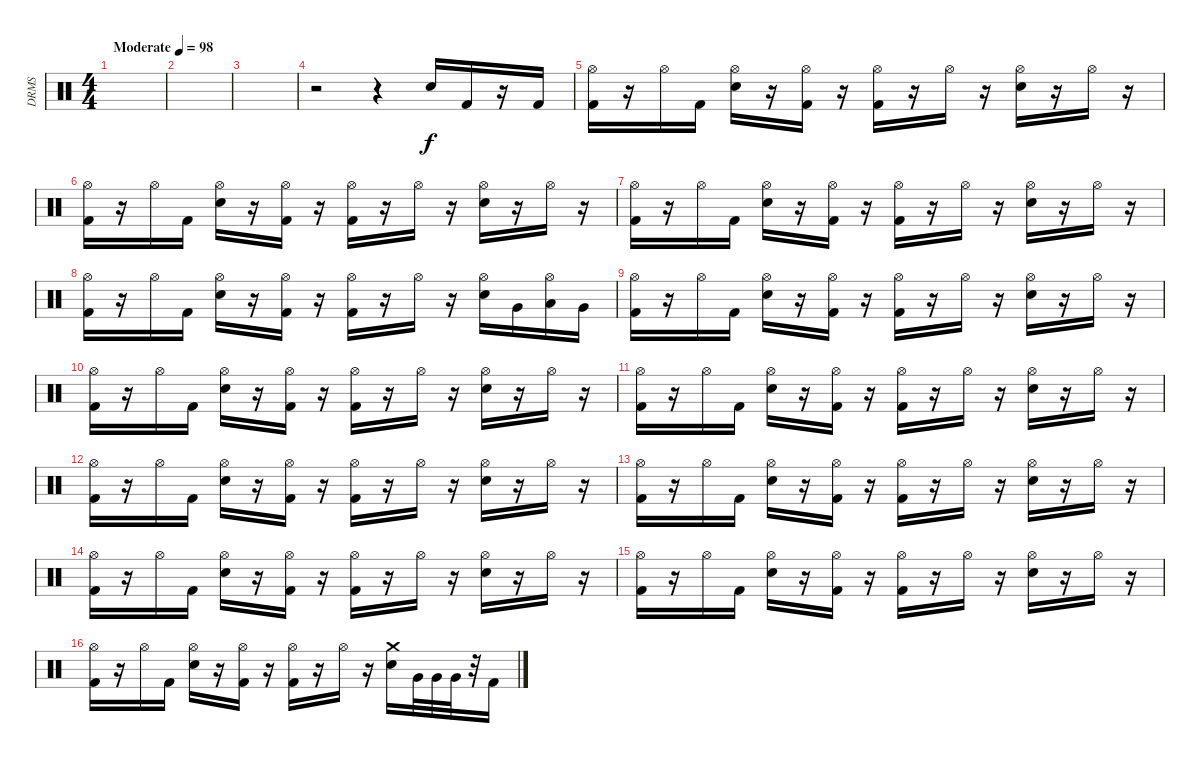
\track ("DRMS" "DRMS") {instrument percussion}
\staff {score}
\articulation defaults
\ts (4 4)
\tempo (98 "Moderate")
\clef neutral
\ks c
|
|
|
r.2 r.4 "Snare (hit) 2".16 "Kick (hit) 2".16 r.16 "Kick (hit) 2".16 |
("Hi-Hat (open)" "Kick (hit) 2").16 r.16 "Hi-Hat (open)".16 "Kick (hit) 2".16 ("Hi-Hat (open)" "Snare (hit) 2").16 r.16 ("Hi-Hat (open)" "Kick (hit) 2").16 r.16 ("Hi-Hat (open)" "Kick (hit) 2").16 r.16 "Hi-Hat (open)".16 r.16 ("Hi-Hat (open)" "Snare (hit) 2").16 r.16 "Hi-Hat (open)".16 r.16 |
("Hi-Hat (open)" "Kick (hit) 2").16 r.16 "Hi-Hat (open)".16 "Kick (hit) 2".16 ("Hi-Hat (open)" "Snare (hit) 2").16 r.16 ("Hi-Hat (open)" "Kick (hit) 2").16 r.16 ("Hi-Hat (open)" "Kick (hit) 2").16 r.16 "Hi-Hat (open)".16 r.16 ("Hi-Hat (open)" "Snare (hit) 2").16 r.16 "Hi-Hat (open)".16 r.16 |
("Hi-Hat (open)" "Kick (hit) 2").16 r.16 "Hi-Hat (open)".16 "Kick (hit) 2".16 ("Hi-Hat (open)" "Snare (hit) 2").16 r.16 ("Hi-Hat (open)" "Kick (hit) 2").16 r.16 ("Hi-Hat (open)" "Kick (hit) 2").16 r.16 "Hi-Hat (open)".16 r.16 ("Hi-Hat (open)" "Snare (hit) 2").16 r.16 "Hi-Hat (open)".16 r.16 |
("Hi-Hat (open)" "Kick (hit) 2").16 r.16 "Hi-Hat (open)".16 "Kick (hit) 2".16 ("Hi-Hat (open)" "Snare (hit) 2").16 r.16 ("Hi-Hat (open)" "Kick (hit) 2").16 r.16 ("Hi-Hat (open)" "Kick (hit) 2").16 r.16 "Hi-Hat (open)".16 r.16 ("Hi-Hat (open)" "Snare (hit) 2").16 "Very Low Tom (hit)".16 ("Hi-Hat (open)" "Low Tom (hit)").16 "Very Low Tom (hit)".16 |
("Hi-Hat (open)" "Kick (hit) 2").16 r.16 "Hi-Hat (open)".16 "Kick (hit) 2".16 ("Hi-Hat (open)" "Snare (hit) 2").16 r.16 ("Hi-Hat (open)" "Kick (hit) 2").16 r.16 ("Hi-Hat (open)" "Kick (hit) 2").16 r.16 "Hi-Hat (open)".16 r.16 ("Hi-Hat (open)" "Snare (hit) 2").16 r.16 "Hi-Hat (open)".16 r.16 |
("Hi-Hat (open)" "Kick (hit) 2").16 r.16 "Hi-Hat (open)".16 "Kick (hit) 2".16 ("Hi-Hat (open)" "Snare (hit) 2").16 r.16 ("Hi-Hat (open)" "Kick (hit) 2").16 r.16 ("Hi-Hat (open)" "Kick (hit) 2").16 r.16 "Hi-Hat (open)".16 r.16 ("Hi-Hat (open)" "Snare (hit) 2").16 r.16 "Hi-Hat (open)".16 r.16 |
("Hi-Hat (open)" "Kick (hit) 2").16 r.16 "Hi-Hat (open)".16 "Kick (hit) 2".16 ("Hi-Hat (open)" "Snare (hit) 2").16 r.16 ("Hi-Hat (open)" "Kick (hit) 2").16 r.16 ("Hi-Hat (open)" "Kick (hit) 2").16 r.16 "Hi-Hat (open)".16 r.16 ("Hi-Hat (open)" "Snare (hit) 2").16 r.16 "Hi-Hat (open)".16 r.16 |
("Hi-Hat (open)" "Kick (hit) 2").16 r.16 "Hi-Hat (open)".16 "Kick (hit) 2".16 ("Hi-Hat (open)" "Snare (hit) 2").16 r.16 ("Hi-Hat (open)" "Kick (hit) 2").16 r.16 ("Hi-Hat (open)" "Kick (hit) 2").16 r.16 "Hi-Hat (open)".16 r.16 ("Hi-Hat (open)" "Snare (hit) 2").16 r.16 "Hi-Hat (open)".16 r.16 |
("Hi-Hat (open)" "Kick (hit) 2").16 r.16 "Hi-Hat (open)".16 "Kick (hit) 2".16 ("Hi-Hat (open)" "Snare (hit) 2").16 r.16 ("Hi-Hat (open)" "Kick (hit) 2").16 r.16 ("Hi-Hat (open)" "Kick (hit) 2").16 r.16 "Hi-Hat (open)".16 r.16 ("Hi-Hat (open)" "Snare (hit) 2").16 r.16 "Hi-Hat (open)".16 r.16 |
("Hi-Hat (open)" "Kick (hit) 2").16 r.16 "Hi-Hat (open)".16 "Kick (hit) 2".16 ("Hi-Hat (open)" "Snare (hit) 2").16 r.16 ("Hi-Hat (open)" "Kick (hit) 2").16 r.16 ("Hi-Hat (open)" "Kick (hit) 2").16 r.16 "Hi-Hat (open)".16 r.16 ("Hi-Hat (open)" "Snare (hit) 2").16 r.16 "Hi-Hat (open)".16 r.16 |
("Hi-Hat (open)" "Kick (hit) 2").16 r.16 "Hi-Hat (open)".16 "Kick (hit) 2".16 ("Hi-Hat (open)" "Snare (hit) 2").16 r.16 ("Hi-Hat (open)" "Kick (hit) 2").16 r.16 ("Hi-Hat (open)" "Kick (hit) 2").16 r.16 "Hi-Hat (open)".16 r.16 ("Hi-Hat (open)" "Snare (hit) 2").16 r.16 "Hi-Hat (open)".16 r.16 |
("Hi-Hat (open)" "Kick (hit) 2").16 r.16 "Hi-Hat (open)".16 "Kick (hit) 2".16 ("Hi-Hat (open)" "Snare (hit) 2").16 r.16 ("Hi-Hat (open)" "Kick (hit) 2").16 r.16 ("Hi-Hat (open)" "Kick (hit) 2").16 r.16 "Hi-Hat (open)".16 r.16 ("Crash medium (hit)" "Snare (hit) 2").16 "Very Low Tom (hit)".32 "Very Low Tom (hit)".32 "Very Low Tom (hit)".32 r.32 "Kick (hit) 2".16
